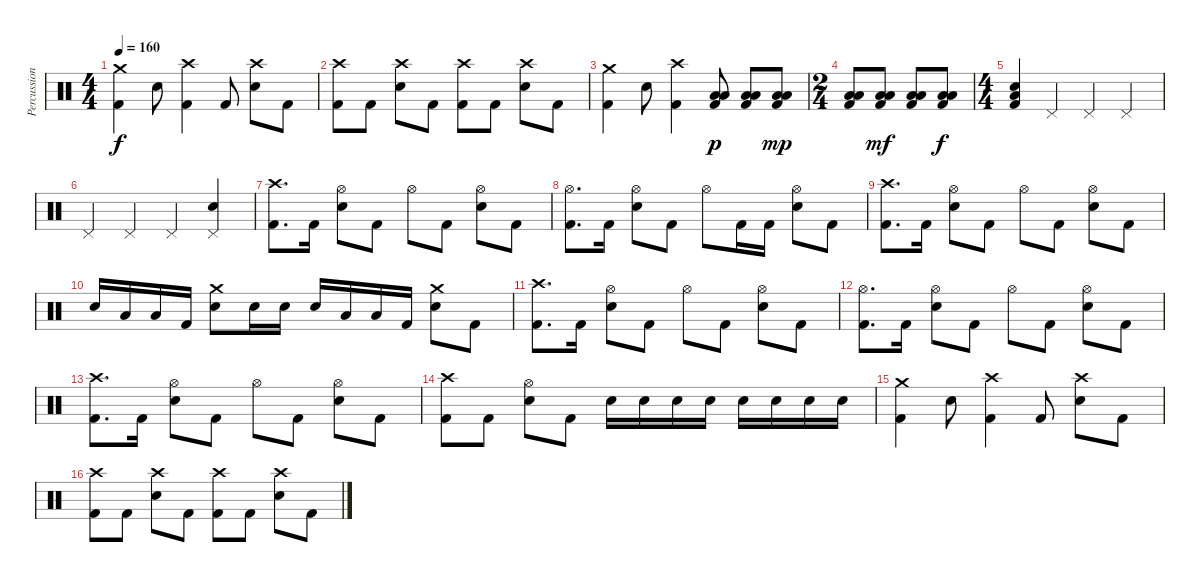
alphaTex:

\track ("Percussion" "Percussion") {instrument percussion}
\staff {score}
\articulation defaults
\ts (4 4)
\tempo 160
\clef neutral
\ks c
("Crash medium (hit)" "Kick (hit) 2").4{dy f} "Electric Snare (hit)".8 ("Crash high (hit)" "Kick (hit) 2").4 "Kick (hit) 2".8 ("Crash high (hit)" "Electric Snare (hit)").8 "Kick (hit) 2".8 |
("Crash high (hit)" "Kick (hit) 2").8 "Kick (hit) 2".8 ("Crash high (hit)" "Electric Snare (hit)").8 "Kick (hit) 2".8 ("Crash high (hit)" "Kick (hit) 2").8 "Kick (hit) 2".8 ("Crash high (hit)" "Electric Snare (hit)").8 "Kick (hit) 2".8 |
("Crash medium (hit)" "Kick (hit) 2").4 "Electric Snare (hit)".8 ("Crash high (hit)" "Kick (hit) 2").4 ("Low Tom (hit)" "Low Floor Tom (hit)" "Kick (hit) 2").8{dy p} ("Low Tom (hit)" "Low Floor Tom (hit)" "Kick (hit) 2").8 ("Low Tom (hit)" "Low Floor Tom (hit)" "Kick (hit) 2").8{dy mp} |
\ts (2 4)
("Low Tom (hit)" "Low Floor Tom (hit)" "Kick (hit) 2").8 ("Low Tom (hit)" "Low Floor Tom (hit)" "Kick (hit) 2").8{dy mf} ("Low Tom (hit)" "Low Floor Tom (hit)" "Kick (hit) 2").8 ("Low Tom (hit)" "Low Floor Tom (hit)" "Kick (hit) 2").8{dy f} |
\ts (4 4)
("Low Floor Tom (hit)" "Electric Snare (hit)" "Kick (hit) 2").4 "Pedal Hi-Hat (hit)".4 "Pedal Hi-Hat (hit)".4 "Pedal Hi-Hat (hit)".4 |
"Pedal Hi-Hat (hit)".4 "Pedal Hi-Hat (hit)".4 "Pedal Hi-Hat (hit)".4 ("Pedal Hi-Hat (hit)" "Electric Snare (hit)").4 |
("Crash high (hit)" "Kick (hit) 2").8{d} "Kick (hit) 2".16 ("Hi-Hat (open)" "Electric Snare (hit)").8 "Kick (hit) 2".8 "Hi-Hat (open)".8 "Kick (hit) 2".8 ("Hi-Hat (open)" "Electric Snare (hit)").8 "Kick (hit) 2".8 |
("Hi-Hat (open)" "Kick (hit) 2").8{d} "Kick (hit) 2".16 ("Hi-Hat (open)" "Electric Snare (hit)").8 "Kick (hit) 2".8 "Hi-Hat (open)".8 "Kick (hit) 2".16 "Kick (hit) 2".16 ("Hi-Hat (open)" "Electric Snare (hit)").8 "Kick (hit) 2".8 |
("Crash high (hit)" "Kick (hit) 2").8{d} "Kick (hit) 2".16 ("Hi-Hat (open)" "Electric Snare (hit)").8 "Kick (hit) 2".8 "Hi-Hat (open)".8 "Kick (hit) 2".8 ("Hi-Hat (open)" "Electric Snare (hit)").8 "Kick (hit) 2".8 |
"Electric Snare (hit)".16 "Low Tom (hit)".16 "Low Floor Tom (hit)".16 "Kick (hit) 2".16 ("Crash medium (hit)" "Electric Snare (hit)").8 "Electric Snare (hit)".16 "Electric Snare (hit)".16 "Electric Snare (hit)".16 "Low Tom (hit)".16 "Low Floor Tom (hit)".16 "Kick (hit) 2".16 ("Crash medium (hit)" "Electric Snare (hit)").8 "Kick (hit) 2".8 |
("Crash high (hit)" "Kick (hit) 2").8{d} "Kick (hit) 2".16 ("Hi-Hat (open)" "Electric Snare (hit)").8 "Kick (hit) 2".8 "Hi-Hat (open)".8 "Kick (hit) 2".8 ("Hi-Hat (open)" "Electric Snare (hit)").8 "Kick (hit) 2".8 |
("Hi-Hat (open)" "Kick (hit) 2").8{d} "Kick (hit) 2".16 ("Hi-Hat (open)" "Electric Snare (hit)").8 "Kick (hit) 2".8 "Hi-Hat (open)".8 "Kick (hit) 2".8 ("Hi-Hat (open)" "Electric Snare (hit)").8 "Kick (hit) 2".8 |
("Crash high (hit)" "Kick (hit) 2").8{d} "Kick (hit) 2".16 ("Hi-Hat (open)" "Electric Snare (hit)").8 "Kick (hit) 2".8 "Hi-Hat (open)".8 "Kick (hit) 2".8 ("Hi-Hat (open)" "Electric Snare (hit)").8 "Kick (hit) 2".8 |
("Crash high (hit)" "Kick (hit) 2").8 "Kick (hit) 2".8 ("Hi-Hat (open)" "Electric Snare (hit)").8 "Kick (hit) 2".8 "Electric Snare (hit)".16 "Electric Snare (hit)".16 "Electric Snare (hit)".16 "Electric Snare (hit)".16 "Electric Snare (hit)".16 "Electric Snare (hit)".16 "Electric Snare (hit)".16 "Electric Snare (hit)".16 |
("Crash medium (hit)" "Kick (hit) 2").4 "Electric Snare (hit)".8 ("Crash high (hit)" "Kick (hit) 2").4 "Kick (hit) 2".8 ("Crash high (hit)" "Electric Snare (hit)").8 "Kick (hit) 2".8 |
("Crash high (hit)" "Kick (hit) 2").8 "Kick (hit) 2".8 ("Crash high (hit)" "Electric Snare (hit)").8 "Kick (hit) 2".8 ("Crash high (hit)" "Kick (hit) 2").8 "Kick (hit) 2".8 ("Crash high (hit)" "Electric Snare (hit)").8 "Kick (hit) 2".8
